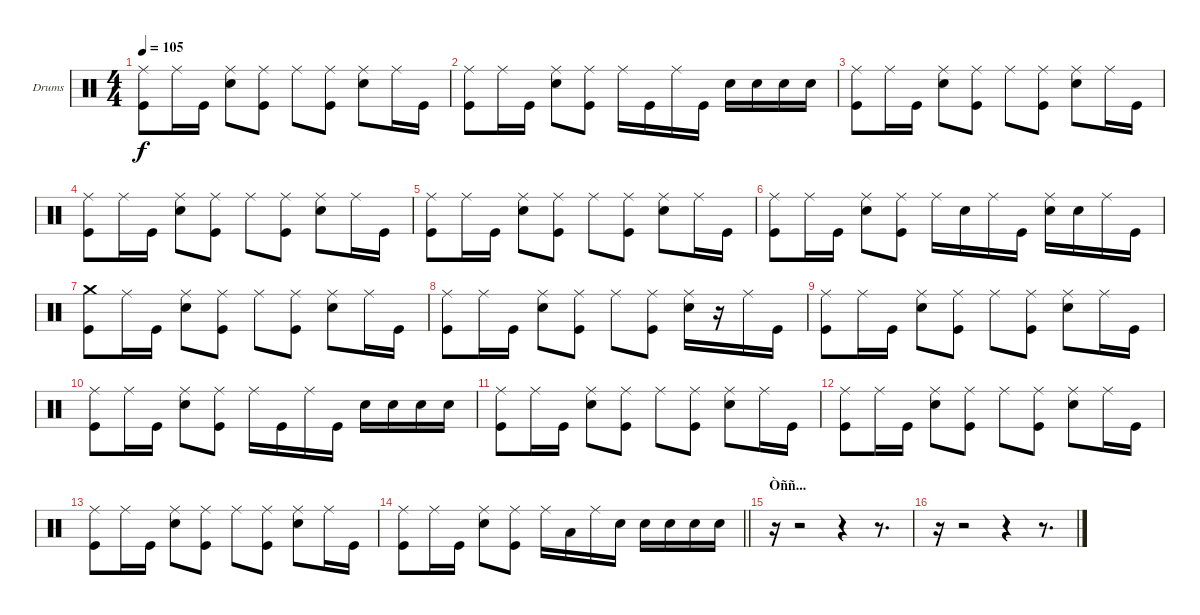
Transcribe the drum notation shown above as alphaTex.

\bracketExtendMode groupsimilarinstruments
\firstSystemTrackNameOrientation horizontal
\otherSystemsTrackNameOrientation horizontal
\track ("Drumkit" "Drums") {instrument percussion}
\staff {score}
\articulation defaults
\ts (4 4)
\tempo 105
\clef neutral
\ks c
("Kick (hit)" "Ride (middle)").8{dy f} "Ride (middle)".16 "Kick (hit)".16 ("Snare (hit) 2" "Ride (middle)").8 ("Kick (hit)" "Ride (middle)").8 "Ride (middle)".8 ("Kick (hit)" "Ride (middle)").8 ("Snare (hit) 2" "Ride (middle)").8 "Ride (middle)".16 "Kick (hit)".16 |
("Kick (hit)" "Ride (middle)").8 "Ride (middle)".16 "Kick (hit)".16 ("Snare (hit) 2" "Ride (middle)").8 ("Kick (hit)" "Ride (middle)").8 "Ride (middle)".16 "Kick (hit)".16 "Ride (middle)".16 "Kick (hit)".16 "Snare (hit) 2".16 "Snare (hit) 2".16 "Snare (hit) 2".16 "Snare (hit) 2".16 |
("Kick (hit)" "Ride (middle)").8 "Ride (middle)".16 "Kick (hit)".16 ("Snare (hit) 2" "Ride (middle)").8 ("Kick (hit)" "Ride (middle)").8 "Ride (middle)".8 ("Kick (hit)" "Ride (middle)").8 ("Snare (hit) 2" "Ride (middle)").8 "Ride (middle)".16 "Kick (hit)".16 |
("Kick (hit)" "Ride (middle)").8 "Ride (middle)".16 "Kick (hit)".16 ("Snare (hit) 2" "Ride (middle)").8 ("Kick (hit)" "Ride (middle)").8 "Ride (middle)".8 ("Kick (hit)" "Ride (middle)").8 ("Snare (hit) 2" "Ride (middle)").8 "Ride (middle)".16 "Kick (hit)".16 |
("Kick (hit)" "Ride (middle)").8 "Ride (middle)".16 "Kick (hit)".16 ("Snare (hit) 2" "Ride (middle)").8 ("Kick (hit)" "Ride (middle)").8 "Ride (middle)".8 ("Kick (hit)" "Ride (middle)").8 ("Snare (hit) 2" "Ride (middle)").8 "Ride (middle)".16 "Kick (hit)".16 |
("Kick (hit)" "Ride (middle)").8 "Ride (middle)".16 "Kick (hit)".16 ("Snare (hit) 2" "Ride (middle)").8 ("Kick (hit)" "Ride (middle)").8 "Ride (middle)".16 "Snare (hit) 2".16 "Ride (middle)".16 "Kick (hit)".16 ("Snare (hit) 2" "Ride (middle)").16 "Snare (hit) 2".16 "Ride (middle)".16 "Kick (hit)".16 |
("Kick (hit)" "Crash medium (hit)").8 "Ride (middle)".16 "Kick (hit)".16 ("Snare (hit) 2" "Ride (middle)").8 ("Kick (hit)" "Ride (middle)").8 "Ride (middle)".8 ("Kick (hit)" "Ride (middle)").8 ("Snare (hit) 2" "Ride (middle)").8 "Ride (middle)".16 "Kick (hit)".16 |
("Kick (hit)" "Ride (middle)").8 "Ride (middle)".16 "Kick (hit)".16 ("Snare (hit) 2" "Ride (middle)").8 ("Kick (hit)" "Ride (middle)").8 "Ride (middle)".8 ("Kick (hit)" "Ride (middle)").8 ("Snare (hit) 2" "Ride (middle)").16 r.16 "Ride (middle)".16 "Kick (hit)".16 |
("Kick (hit)" "Ride (middle)").8 "Ride (middle)".16 "Kick (hit)".16 ("Snare (hit) 2" "Ride (middle)").8 ("Kick (hit)" "Ride (middle)").8 "Ride (middle)".8 ("Kick (hit)" "Ride (middle)").8 ("Snare (hit) 2" "Ride (middle)").8 "Ride (middle)".16 "Kick (hit)".16 |
("Kick (hit)" "Ride (middle)").8 "Ride (middle)".16 "Kick (hit)".16 ("Snare (hit) 2" "Ride (middle)").8 ("Kick (hit)" "Ride (middle)").8 "Ride (middle)".16 "Kick (hit)".16 "Ride (middle)".16 "Kick (hit)".16 "Snare (hit) 2".16 "Snare (hit) 2".16 "Snare (hit) 2".16 "Snare (hit) 2".16 |
("Kick (hit)" "Ride (middle)").8 "Ride (middle)".16 "Kick (hit)".16 ("Snare (hit) 2" "Ride (middle)").8 ("Kick (hit)" "Ride (middle)").8 "Ride (middle)".8 ("Kick (hit)" "Ride (middle)").8 ("Snare (hit) 2" "Ride (middle)").8 "Ride (middle)".16 "Kick (hit)".16 |
("Kick (hit)" "Ride (middle)").8 "Ride (middle)".16 "Kick (hit)".16 ("Snare (hit) 2" "Ride (middle)").8 ("Kick (hit)" "Ride (middle)").8 "Ride (middle)".8 ("Kick (hit)" "Ride (middle)").8 ("Snare (hit) 2" "Ride (middle)").8 "Ride (middle)".16 "Kick (hit)".16 |
("Kick (hit)" "Ride (middle)").8 "Ride (middle)".16 "Kick (hit)".16 ("Snare (hit) 2" "Ride (middle)").8 ("Kick (hit)" "Ride (middle)").8 "Ride (middle)".8 ("Kick (hit)" "Ride (middle)").8 ("Snare (hit) 2" "Ride (middle)").8 "Ride (middle)".16 "Kick (hit)".16 |
\barLineRight lightlight
("Kick (hit)" "Ride (middle)").8 "Ride (middle)".16 "Kick (hit)".16 ("Snare (hit) 2" "Ride (middle)").8 ("Kick (hit)" "Ride (middle)").8 "Ride (middle)".16 "Low Tom (hit)".16 "Ride (middle)".16 "Snare (hit) 2".16 "Snare (hit) 2".16 "Snare (hit) 2".16 "Snare (hit) 2".16 "Snare (hit) 2".16 |
\section ("" "Òññ...")
r.16 r.2 r.4 r.8{d} |
r.16 r.2 r.4 r.8{d}
